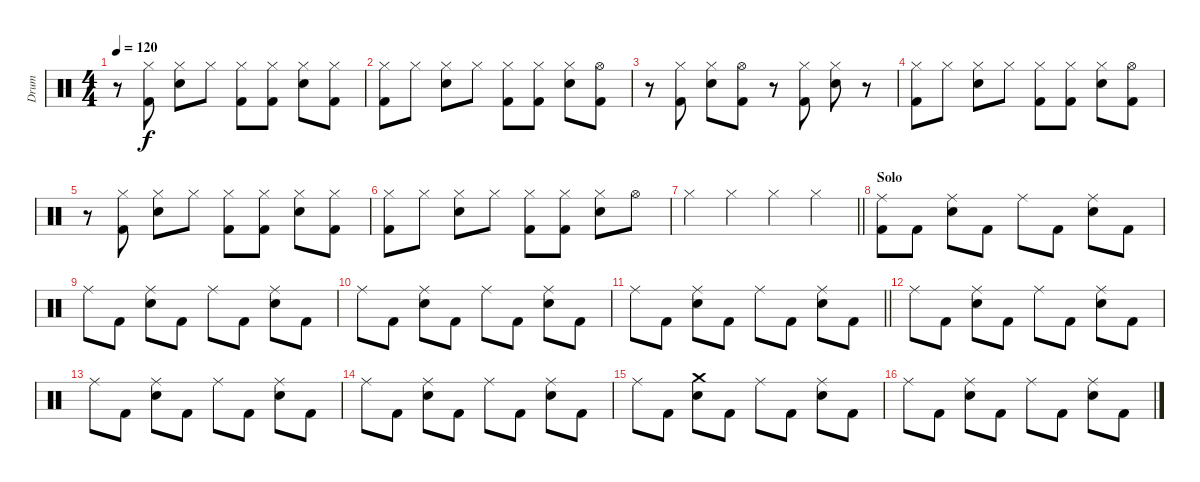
\track ("Drum" "Drum") {instrument percussion}
\staff {score}
\articulation defaults
\ts (4 4)
\tempo 120
\clef neutral
\ks c
r.8{dy f} ("Hi-Hat (closed)" "Kick (hit) 2").8 ("Hi-Hat (closed)" "Electric Snare (hit)").8 "Hi-Hat (closed)".8 ("Hi-Hat (closed)" "Kick (hit) 2").8 ("Hi-Hat (closed)" "Kick (hit) 2").8 ("Hi-Hat (closed)" "Electric Snare (hit)").8 ("Hi-Hat (closed)" "Kick (hit) 2").8 |
("Hi-Hat (closed)" "Kick (hit) 2").8 "Hi-Hat (closed)".8 ("Hi-Hat (closed)" "Electric Snare (hit)").8 "Hi-Hat (closed)".8 ("Hi-Hat (closed)" "Kick (hit) 2").8 ("Hi-Hat (closed)" "Kick (hit) 2").8 ("Hi-Hat (closed)" "Electric Snare (hit)").8 ("Hi-Hat (open)" "Kick (hit) 2").8 |
r.8 ("Hi-Hat (closed)" "Kick (hit) 2").8 ("Hi-Hat (closed)" "Electric Snare (hit)").8 ("Hi-Hat (open)" "Kick (hit) 2").8 r.8 ("Hi-Hat (closed)" "Kick (hit) 2").8 ("Hi-Hat (closed)" "Electric Snare (hit)").8 r.8 |
("Hi-Hat (closed)" "Kick (hit) 2").8 "Hi-Hat (closed)".8 ("Hi-Hat (closed)" "Electric Snare (hit)").8 "Hi-Hat (closed)".8 ("Hi-Hat (closed)" "Kick (hit) 2").8 ("Hi-Hat (closed)" "Kick (hit) 2").8 ("Hi-Hat (closed)" "Electric Snare (hit)").8 ("Hi-Hat (open)" "Kick (hit) 2").8 |
r.8 ("Hi-Hat (closed)" "Kick (hit) 2").8 ("Hi-Hat (closed)" "Electric Snare (hit)").8 "Hi-Hat (closed)".8 ("Hi-Hat (closed)" "Kick (hit) 2").8 ("Hi-Hat (closed)" "Kick (hit) 2").8 ("Hi-Hat (closed)" "Electric Snare (hit)").8 ("Hi-Hat (closed)" "Kick (hit) 2").8 |
("Hi-Hat (closed)" "Kick (hit) 2").8 "Hi-Hat (closed)".8 ("Hi-Hat (closed)" "Electric Snare (hit)").8 "Hi-Hat (closed)".8 ("Hi-Hat (closed)" "Kick (hit) 2").8 ("Hi-Hat (closed)" "Kick (hit) 2").8 ("Hi-Hat (closed)" "Electric Snare (hit)").8 "Hi-Hat (open)".8 |
\barLineRight lightlight "Hi-Hat (closed)".4 "Hi-Hat (closed)".4 "Hi-Hat (closed)".4 "Hi-Hat (closed)".4
|
\section ("" "Solo")
("Ride (middle)" "Kick (hit) 2").8 "Kick (hit) 2".8 ("Ride (middle)" "Electric Snare (hit)").8 "Kick (hit) 2".8 "Ride (middle)".8 "Kick (hit) 2".8 ("Ride (middle)" "Electric Snare (hit)").8 "Kick (hit) 2".8 |
"Ride (middle)".8 "Kick (hit) 2".8 ("Ride (middle)" "Electric Snare (hit)").8 "Kick (hit) 2".8 "Ride (middle)".8 "Kick (hit) 2".8 ("Ride (middle)" "Electric Snare (hit)").8 "Kick (hit) 2".8 |
"Ride (middle)".8 "Kick (hit) 2".8 ("Ride (middle)" "Electric Snare (hit)").8 "Kick (hit) 2".8 "Ride (middle)".8 "Kick (hit) 2".8 ("Ride (middle)" "Electric Snare (hit)").8 "Kick (hit) 2".8 |
\barLineRight lightlight "Ride (middle)".8 "Kick (hit) 2".8
("Ride (middle)" "Electric Snare (hit)").8 "Kick (hit) 2".8 "Ride (middle)".8 "Kick (hit) 2".8 ("Ride (middle)" "Electric Snare (hit)").8 "Kick (hit) 2".8 |
"Ride (middle)".8 "Kick (hit) 2".8 ("Ride (middle)" "Electric Snare (hit)").8 "Kick (hit) 2".8 "Ride (middle)".8 "Kick (hit) 2".8 ("Ride (middle)" "Electric Snare (hit)").8 "Kick (hit) 2".8 |
"Ride (middle)".8 "Kick (hit) 2".8 ("Ride (middle)" "Electric Snare (hit)").8 "Kick (hit) 2".8 "Ride (middle)".8 "Kick (hit) 2".8 ("Ride (middle)" "Electric Snare (hit)").8 "Kick (hit) 2".8 |
"Ride (middle)".8 "Kick (hit) 2".8 ("Ride (middle)" "Electric Snare (hit)").8 "Kick (hit) 2".8 "Ride (middle)".8 "Kick (hit) 2".8 ("Ride (middle)" "Electric Snare (hit)").8 "Kick (hit) 2".8 |
"Ride (middle)".8 "Kick (hit) 2".8 ("Crash medium (hit)" "Electric Snare (hit)").8 "Kick (hit) 2".8 "Ride (middle)".8 "Kick (hit) 2".8 ("Ride (middle)" "Electric Snare (hit)").8 "Kick (hit) 2".8 |
"Ride (middle)".8 "Kick (hit) 2".8 ("Ride (middle)" "Electric Snare (hit)").8 "Kick (hit) 2".8 "Ride (middle)".8 "Kick (hit) 2".8 ("Ride (middle)" "Electric Snare (hit)").8 "Kick (hit) 2".8
